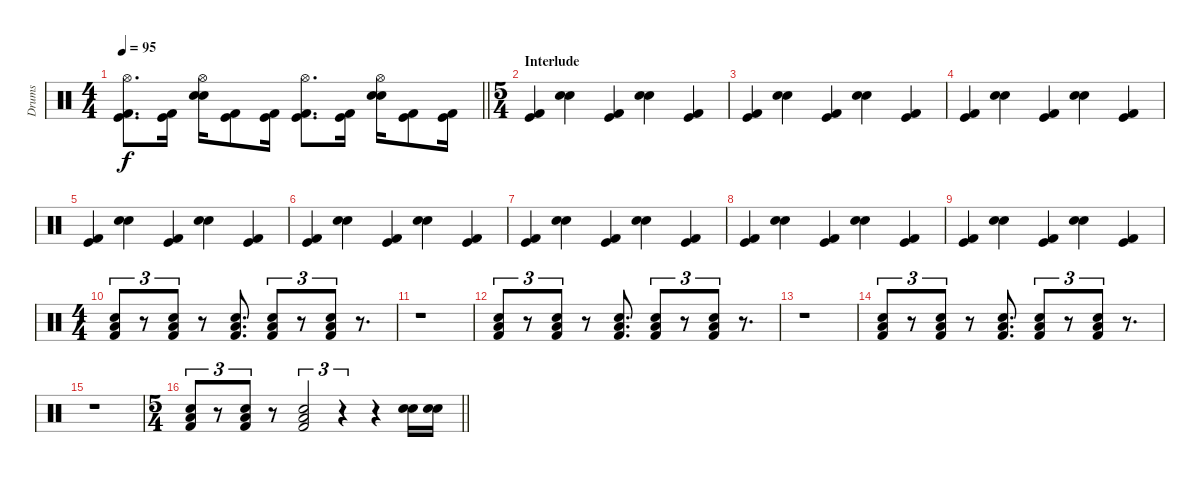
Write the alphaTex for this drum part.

\track ("Drums" "Drums") {instrument percussion}
\staff {score}
\articulation defaults
\ts (4 4)
\tempo 95
\clef neutral
\barLineRight lightlight
\ks c
("Hi-Hat (open)" "Kick (hit)" "Kick (hit) 2").8{d dy f} ("Kick (hit)" "Kick (hit) 2").16 ("Hi-Hat (open)" "Snare (hit) 2" "Electric Snare (hit)").16 ("Kick (hit)" "Kick (hit) 2").8 ("Kick (hit)" "Kick (hit) 2").16 ("Hi-Hat (open)" "Kick (hit)" "Kick (hit) 2").8{d} ("Kick (hit)" "Kick (hit) 2").16 ("Hi-Hat (open)" "Snare (hit) 2" "Electric Snare (hit)").16 ("Kick (hit)" "Kick (hit) 2").8 ("Kick (hit)" "Kick (hit) 2").16 |
\ts (5 4)
\section ("" "Interlude")
("Kick (hit)" "Kick (hit) 2").4 ("Snare (hit) 2" "Electric Snare (hit)").4 ("Kick (hit)" "Kick (hit) 2").4 ("Snare (hit) 2" "Electric Snare (hit)").4 ("Kick (hit)" "Kick (hit) 2").4 |
("Kick (hit)" "Kick (hit) 2").4 ("Snare (hit) 2" "Electric Snare (hit)").4 ("Kick (hit)" "Kick (hit) 2").4 ("Snare (hit) 2" "Electric Snare (hit)").4 ("Kick (hit)" "Kick (hit) 2").4 |
("Kick (hit)" "Kick (hit) 2").4 ("Snare (hit) 2" "Electric Snare (hit)").4 ("Kick (hit)" "Kick (hit) 2").4 ("Snare (hit) 2" "Electric Snare (hit)").4 ("Kick (hit)" "Kick (hit) 2").4 |
("Kick (hit)" "Kick (hit) 2").4 ("Snare (hit) 2" "Electric Snare (hit)").4 ("Kick (hit)" "Kick (hit) 2").4 ("Snare (hit) 2" "Electric Snare (hit)").4 ("Kick (hit)" "Kick (hit) 2").4 |
("Kick (hit)" "Kick (hit) 2").4 ("Snare (hit) 2" "Electric Snare (hit)").4 ("Kick (hit)" "Kick (hit) 2").4 ("Snare (hit) 2" "Electric Snare (hit)").4 ("Kick (hit)" "Kick (hit) 2").4 |
("Kick (hit)" "Kick (hit) 2").4 ("Snare (hit) 2" "Electric Snare (hit)").4 ("Kick (hit)" "Kick (hit) 2").4 ("Snare (hit) 2" "Electric Snare (hit)").4 ("Kick (hit)" "Kick (hit) 2").4 |
("Kick (hit)" "Kick (hit) 2").4 ("Snare (hit) 2" "Electric Snare (hit)").4 ("Kick (hit)" "Kick (hit) 2").4 ("Snare (hit) 2" "Electric Snare (hit)").4 ("Kick (hit)" "Kick (hit) 2").4 |
("Kick (hit)" "Kick (hit) 2").4 ("Snare (hit) 2" "Electric Snare (hit)").4 ("Kick (hit)" "Kick (hit) 2").4 ("Snare (hit) 2" "Electric Snare (hit)").4 ("Kick (hit)" "Kick (hit) 2").4 |
\ts (4 4)
("Snare (hit) 2" "Low Tom (hit)" "Kick (hit) 2").8{tu (3 2)} r.8{tu (3 2)} ("Snare (hit) 2" "Low Tom (hit)" "Kick (hit) 2").8{tu (3 2)} r.8 ("Snare (hit) 2" "Low Tom (hit)" "Kick (hit) 2").8{d} ("Snare (hit) 2" "Low Tom (hit)" "Kick (hit) 2").8{tu (3 2)} r.8{tu (3 2)} ("Snare (hit) 2" "Low Tom (hit)" "Kick (hit) 2").8{tu (3 2)} r.8{d} |
r.1 |
("Snare (hit) 2" "Low Tom (hit)" "Kick (hit) 2").8{tu (3 2)} r.8{tu (3 2)} ("Snare (hit) 2" "Low Tom (hit)" "Kick (hit) 2").8{tu (3 2)} r.8 ("Snare (hit) 2" "Low Tom (hit)" "Kick (hit) 2").8{d} ("Snare (hit) 2" "Low Tom (hit)" "Kick (hit) 2").8{tu (3 2)} r.8{tu (3 2)} ("Snare (hit) 2" "Low Tom (hit)" "Kick (hit) 2").8{tu (3 2)} r.8{d} |
r.1 |
("Snare (hit) 2" "Low Tom (hit)" "Kick (hit) 2").8{tu (3 2)} r.8{tu (3 2)} ("Snare (hit) 2" "Low Tom (hit)" "Kick (hit) 2").8{tu (3 2)} r.8 ("Snare (hit) 2" "Low Tom (hit)" "Kick (hit) 2").8{d} ("Snare (hit) 2" "Low Tom (hit)" "Kick (hit) 2").8{tu (3 2)} r.8{tu (3 2)} ("Snare (hit) 2" "Low Tom (hit)" "Kick (hit) 2").8{tu (3 2)} r.8{d} |
r.1 |
\ts (5 4)
\barLineRight lightlight
("Snare (hit) 2" "Low Tom (hit)" "Kick (hit) 2").8{tu (3 2)} r.8{tu (3 2)} ("Snare (hit) 2" "Low Tom (hit)" "Kick (hit) 2").8{tu (3 2)} r.8 ("Snare (hit) 2" "Low Tom (hit)" "Kick (hit) 2").2{tu (3 2)} r.4{tu (3 2)} r.4 ("Snare (hit) 2" "Electric Snare (hit)").16 ("Snare (hit) 2" "Electric Snare (hit)").16
